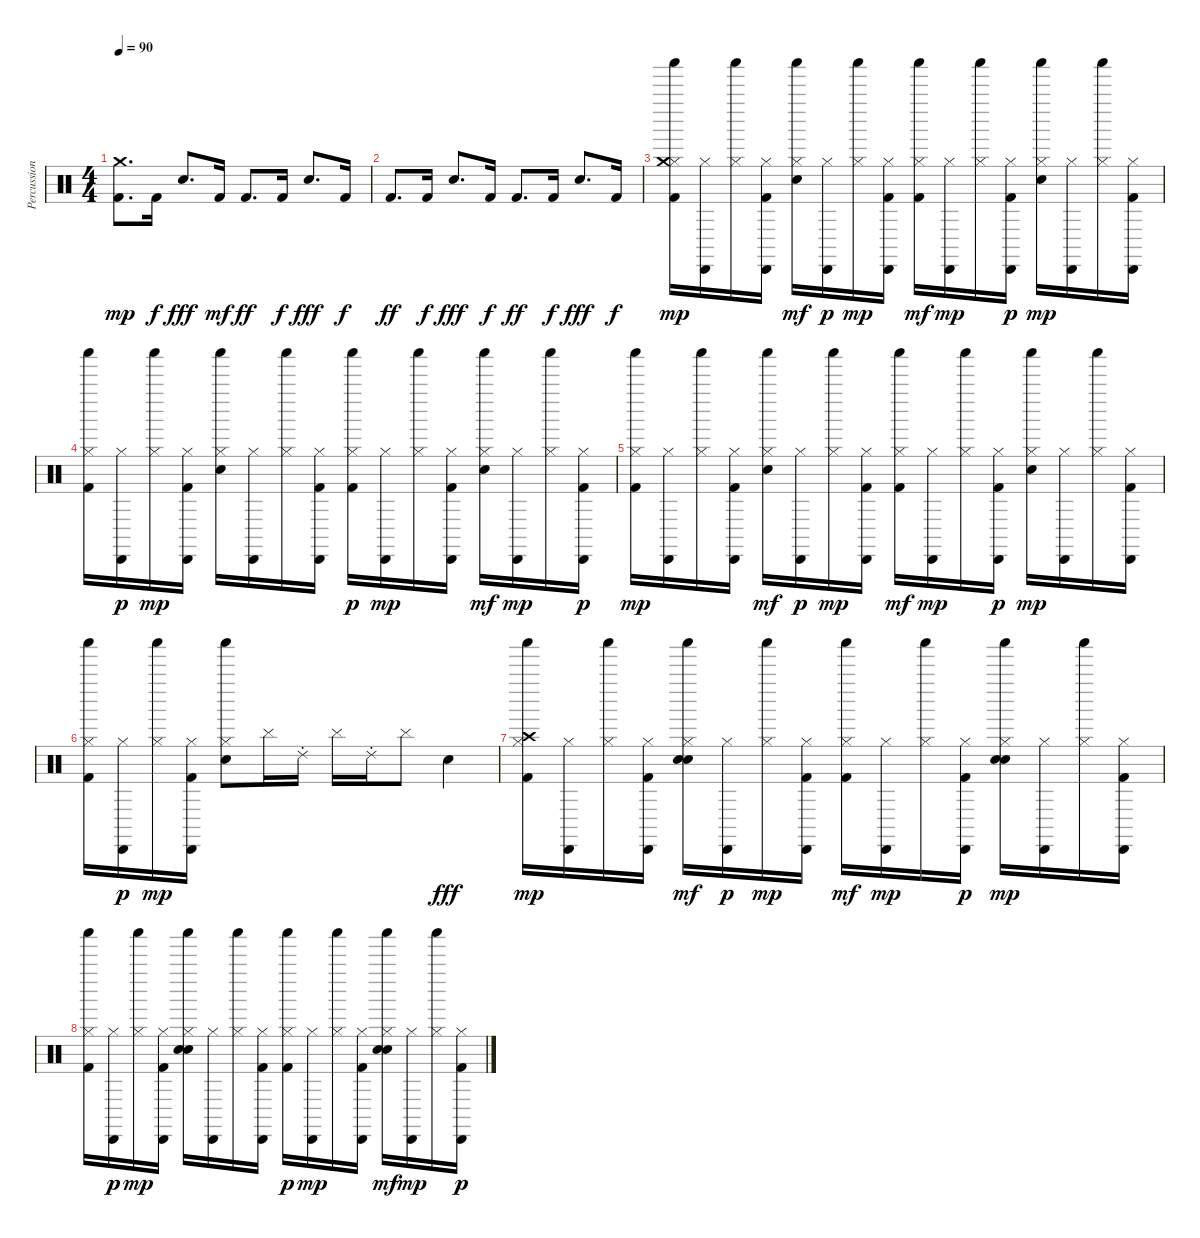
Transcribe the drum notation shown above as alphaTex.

\track ("Percussions" "Percussion") {instrument percussion}
\staff {score}
\articulation defaults
\ts (4 4)
\tempo 90
\clef neutral
\ks c
("Kick (hit) 2" "Crash medium (hit)").8{d dy mp} "Kick (hit) 2".16{dy f} "Electric Snare (hit)".8{d dy fff} "Kick (hit) 2".16{dy mf} "Kick (hit) 2".8{d dy ff} "Kick (hit) 2".16{dy f} "Electric Snare (hit)".8{d dy fff} "Kick (hit) 2".16{dy f} |
"Kick (hit) 2".8{d dy ff} "Kick (hit) 2".16{dy f} "Electric Snare (hit)".8{d dy fff} "Kick (hit) 2".16{dy f} "Kick (hit) 2".8{d dy ff} "Kick (hit) 2".16{dy f} "Electric Snare (hit)".8{d dy fff} "Kick (hit) 2".16{dy f} |
("Kick (hit) 2" "Hi-Hat (closed)" "Crash medium (hit)" "Shaker (hit)").16{dy mp} ("Hi-Hat (closed)" "Cabasa (hit)").16 ("Hi-Hat (closed)" "Shaker (hit)").16 ("Kick (hit) 2" "Hi-Hat (closed)" "Cabasa (hit)").16 ("Electric Snare (hit)" "Hi-Hat (closed)" "Shaker (hit)").16{dy mf} ("Hi-Hat (closed)" "Cabasa (hit)").16{dy p} ("Hi-Hat (closed)" "Shaker (hit)").16{dy mp} ("Kick (hit) 2" "Hi-Hat (closed)" "Cabasa (hit)").16 ("Kick (hit) 2" "Hi-Hat (closed)" "Shaker (hit)").16{dy mf} ("Hi-Hat (closed)" "Cabasa (hit)").16{dy mp} ("Hi-Hat (closed)" "Shaker (hit)").16 ("Kick (hit) 2" "Hi-Hat (closed)" "Cabasa (hit)").16{dy p} ("Electric Snare (hit)" "Hi-Hat (closed)" "Shaker (hit)").16{dy mp} ("Hi-Hat (closed)" "Cabasa (hit)").16 ("Hi-Hat (closed)" "Shaker (hit)").16 ("Kick (hit) 2" "Hi-Hat (closed)" "Cabasa (hit)").16 |
("Kick (hit) 2" "Hi-Hat (closed)" "Shaker (hit)").16 ("Hi-Hat (closed)" "Cabasa (hit)").16{dy p} ("Hi-Hat (closed)" "Shaker (hit)").16{dy mp} ("Kick (hit) 2" "Hi-Hat (closed)" "Cabasa (hit)").16 ("Electric Snare (hit)" "Hi-Hat (closed)" "Shaker (hit)").16 ("Hi-Hat (closed)" "Cabasa (hit)").16 ("Hi-Hat (closed)" "Shaker (hit)").16 ("Kick (hit) 2" "Hi-Hat (closed)" "Cabasa (hit)").16 ("Kick (hit) 2" "Hi-Hat (closed)" "Shaker (hit)").16{dy p} ("Hi-Hat (closed)" "Cabasa (hit)").16{dy mp} ("Hi-Hat (closed)" "Shaker (hit)").16 ("Kick (hit) 2" "Hi-Hat (closed)" "Cabasa (hit)").16 ("Electric Snare (hit)" "Hi-Hat (closed)" "Shaker (hit)").16{dy mf} ("Hi-Hat (closed)" "Cabasa (hit)").16{dy mp} ("Hi-Hat (closed)" "Shaker (hit)").16 ("Kick (hit) 2" "Hi-Hat (closed)" "Cabasa (hit)").16{dy p} |
("Kick (hit) 2" "Hi-Hat (closed)" "Shaker (hit)").16{dy mp} ("Hi-Hat (closed)" "Cabasa (hit)").16 ("Hi-Hat (closed)" "Shaker (hit)").16 ("Kick (hit) 2" "Hi-Hat (closed)" "Cabasa (hit)").16 ("Electric Snare (hit)" "Hi-Hat (closed)" "Shaker (hit)").16{dy mf} ("Hi-Hat (closed)" "Cabasa (hit)").16{dy p} ("Hi-Hat (closed)" "Shaker (hit)").16{dy mp} ("Kick (hit) 2" "Hi-Hat (closed)" "Cabasa (hit)").16 ("Kick (hit) 2" "Hi-Hat (closed)" "Shaker (hit)").16{dy mf} ("Hi-Hat (closed)" "Cabasa (hit)").16{dy mp} ("Hi-Hat (closed)" "Shaker (hit)").16 ("Kick (hit) 2" "Hi-Hat (closed)" "Cabasa (hit)").16{dy p} ("Electric Snare (hit)" "Hi-Hat (closed)" "Shaker (hit)").16{dy mp} ("Hi-Hat (closed)" "Cabasa (hit)").16 ("Hi-Hat (closed)" "Shaker (hit)").16 ("Kick (hit) 2" "Hi-Hat (closed)" "Cabasa (hit)").16 |
("Kick (hit) 2" "Hi-Hat (closed)" "Shaker (hit)").16 ("Hi-Hat (closed)" "Cabasa (hit)").16{dy p} ("Hi-Hat (closed)" "Shaker (hit)").16{dy mp} ("Kick (hit) 2" "Hi-Hat (closed)" "Cabasa (hit)").16 ("Electric Snare (hit)" "Hi-Hat (closed)" "Shaker (hit)").8 "Cymbal (hit)".16 "Ride (choke) 2".16 "Cymbal (hit)".16 "Ride (choke) 2".16 "Cymbal (hit)".8 "Electric Snare (hit)".4{dy fff} |
("Kick (hit) 2" "Hi-Hat (closed)" "Crash high (hit)" "Shaker (hit)").16{dy mp} ("Hi-Hat (closed)" "Cabasa (hit)").16 ("Hi-Hat (closed)" "Shaker (hit)").16 ("Kick (hit) 2" "Hi-Hat (closed)" "Cabasa (hit)").16 ("Hand Clap (hit)" "Electric Snare (hit)" "Hi-Hat (closed)" "Shaker (hit)").16{dy mf} ("Hi-Hat (closed)" "Cabasa (hit)").16{dy p} ("Hi-Hat (closed)" "Shaker (hit)").16{dy mp} ("Kick (hit) 2" "Hi-Hat (closed)" "Cabasa (hit)").16 ("Kick (hit) 2" "Hi-Hat (closed)" "Shaker (hit)").16{dy mf} ("Hi-Hat (closed)" "Cabasa (hit)").16{dy mp} ("Hi-Hat (closed)" "Shaker (hit)").16 ("Kick (hit) 2" "Hi-Hat (closed)" "Cabasa (hit)").16{dy p} ("Hand Clap (hit)" "Electric Snare (hit)" "Hi-Hat (closed)" "Shaker (hit)").16{dy mp} ("Hi-Hat (closed)" "Cabasa (hit)").16 ("Hi-Hat (closed)" "Shaker (hit)").16 ("Kick (hit) 2" "Hi-Hat (closed)" "Cabasa (hit)").16 |
("Kick (hit) 2" "Hi-Hat (closed)" "Shaker (hit)").16 ("Hi-Hat (closed)" "Cabasa (hit)").16{dy p} ("Hi-Hat (closed)" "Shaker (hit)").16{dy mp} ("Kick (hit) 2" "Hi-Hat (closed)" "Cabasa (hit)").16 ("Hand Clap (hit)" "Electric Snare (hit)" "Hi-Hat (closed)" "Shaker (hit)").16 ("Hi-Hat (closed)" "Cabasa (hit)").16 ("Hi-Hat (closed)" "Shaker (hit)").16 ("Kick (hit) 2" "Hi-Hat (closed)" "Cabasa (hit)").16 ("Kick (hit) 2" "Hi-Hat (closed)" "Shaker (hit)").16{dy p} ("Hi-Hat (closed)" "Cabasa (hit)").16{dy mp} ("Hi-Hat (closed)" "Shaker (hit)").16 ("Kick (hit) 2" "Hi-Hat (closed)" "Cabasa (hit)").16 ("Hand Clap (hit)" "Electric Snare (hit)" "Hi-Hat (closed)" "Shaker (hit)").16{dy mf} ("Hi-Hat (closed)" "Cabasa (hit)").16{dy mp} ("Hi-Hat (closed)" "Shaker (hit)").16 ("Kick (hit) 2" "Hi-Hat (closed)" "Cabasa (hit)").16{dy p}
